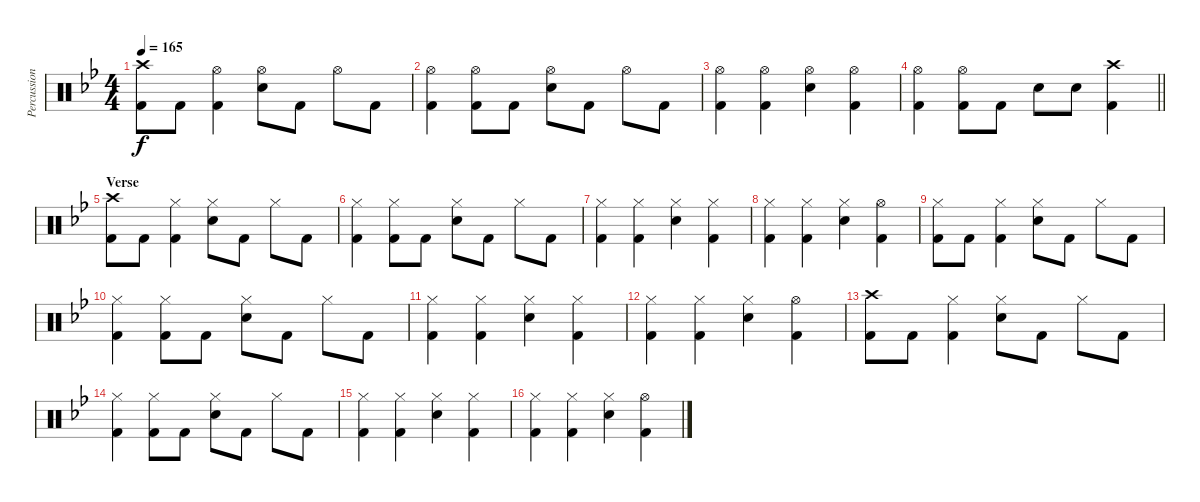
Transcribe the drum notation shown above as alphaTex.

\track ("Percussion - Aaron" "Percussion") {instrument percussion}
\staff {score}
\articulation defaults
\ts (4 4)
\tempo 165
\clef neutral
\ks gminor
("Crash high (hit)" "Kick (hit) 2").8{dy f} "Kick (hit) 2".8 ("Hi-Hat (open)" "Kick (hit) 2").4 ("Hi-Hat (open)" "Electric Snare (hit)").8 "Kick (hit) 2".8 "Hi-Hat (open)".8 "Kick (hit) 2".8 |
("Hi-Hat (open)" "Kick (hit) 2").4 ("Hi-Hat (open)" "Kick (hit) 2").8 "Kick (hit) 2".8 ("Hi-Hat (open)" "Electric Snare (hit)").8 "Kick (hit) 2".8 "Hi-Hat (open)".8 "Kick (hit) 2".8 |
("Hi-Hat (open)" "Kick (hit) 2").4 ("Hi-Hat (open)" "Kick (hit) 2").4 ("Hi-Hat (open)" "Electric Snare (hit)").4 ("Hi-Hat (open)" "Kick (hit) 2").4 |
\barLineRight lightlight
("Hi-Hat (open)" "Kick (hit) 2").4 ("Hi-Hat (open)" "Kick (hit) 2").8 "Kick (hit) 2".8 "Electric Snare (hit)".8 "Electric Snare (hit)".8 ("Crash high (hit)" "Kick (hit) 2").4 |
\section ("" "Verse")
("Crash high (hit)" "Kick (hit) 2").8 "Kick (hit) 2".8 ("Hi-Hat (closed)" "Kick (hit) 2").4 ("Hi-Hat (closed)" "Electric Snare (hit)").8 "Kick (hit) 2".8 "Hi-Hat (closed)".8 "Kick (hit) 2".8 |
("Hi-Hat (closed)" "Kick (hit) 2").4 ("Hi-Hat (closed)" "Kick (hit) 2").8 "Kick (hit) 2".8 ("Hi-Hat (closed)" "Electric Snare (hit)").8 "Kick (hit) 2".8 "Hi-Hat (closed)".8 "Kick (hit) 2".8 |
("Hi-Hat (closed)" "Kick (hit) 2").4 ("Hi-Hat (closed)" "Kick (hit) 2").4 ("Hi-Hat (closed)" "Electric Snare (hit)").4 ("Hi-Hat (closed)" "Kick (hit) 2").4 |
("Hi-Hat (closed)" "Kick (hit) 2").4 ("Hi-Hat (closed)" "Kick (hit) 2").4 ("Hi-Hat (closed)" "Electric Snare (hit)").4 ("Hi-Hat (open)" "Kick (hit) 2").4 |
("Hi-Hat (closed)" "Kick (hit) 2").8 "Kick (hit) 2".8 ("Hi-Hat (closed)" "Kick (hit) 2").4 ("Hi-Hat (closed)" "Electric Snare (hit)").8 "Kick (hit) 2".8 "Hi-Hat (closed)".8 "Kick (hit) 2".8 |
("Hi-Hat (closed)" "Kick (hit) 2").4 ("Hi-Hat (closed)" "Kick (hit) 2").8 "Kick (hit) 2".8 ("Hi-Hat (closed)" "Electric Snare (hit)").8 "Kick (hit) 2".8 "Hi-Hat (closed)".8 "Kick (hit) 2".8 |
("Hi-Hat (closed)" "Kick (hit) 2").4 ("Hi-Hat (closed)" "Kick (hit) 2").4 ("Hi-Hat (closed)" "Electric Snare (hit)").4 ("Hi-Hat (closed)" "Kick (hit) 2").4 |
("Hi-Hat (closed)" "Kick (hit) 2").4 ("Hi-Hat (closed)" "Kick (hit) 2").4 ("Hi-Hat (closed)" "Electric Snare (hit)").4 ("Hi-Hat (open)" "Kick (hit) 2").4 |
("Crash high (hit)" "Kick (hit) 2").8 "Kick (hit) 2".8 ("Hi-Hat (closed)" "Kick (hit) 2").4 ("Hi-Hat (closed)" "Electric Snare (hit)").8 "Kick (hit) 2".8 "Hi-Hat (closed)".8 "Kick (hit) 2".8 |
("Hi-Hat (closed)" "Kick (hit) 2").4 ("Hi-Hat (closed)" "Kick (hit) 2").8 "Kick (hit) 2".8 ("Hi-Hat (closed)" "Electric Snare (hit)").8 "Kick (hit) 2".8 "Hi-Hat (closed)".8 "Kick (hit) 2".8 |
("Hi-Hat (closed)" "Kick (hit) 2").4 ("Hi-Hat (closed)" "Kick (hit) 2").4 ("Hi-Hat (closed)" "Electric Snare (hit)").4 ("Hi-Hat (closed)" "Kick (hit) 2").4 |
("Hi-Hat (closed)" "Kick (hit) 2").4 ("Hi-Hat (closed)" "Kick (hit) 2").4 ("Hi-Hat (closed)" "Electric Snare (hit)").4 ("Hi-Hat (open)" "Kick (hit) 2").4
